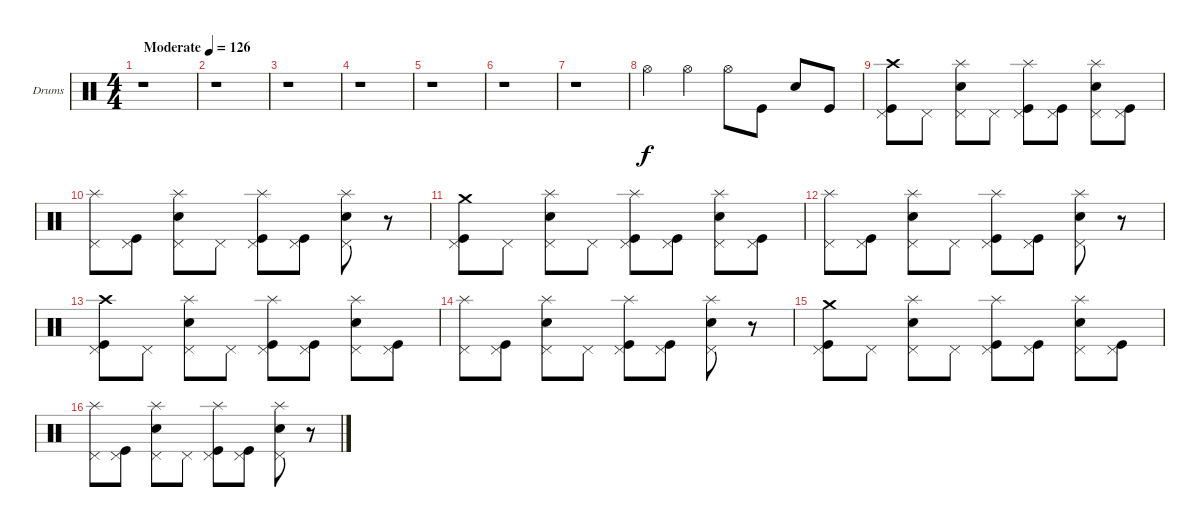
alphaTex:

\bracketExtendMode groupsimilarinstruments
\firstSystemTrackNameOrientation horizontal
\otherSystemsTrackNameOrientation horizontal
\track ("Drumkit" "Drums") {instrument percussion}
\staff {score}
\articulation defaults
\ts (4 4)
\beaming (8 2 2 2 2)
\tempo (126 "Moderate")
\clef neutral
\ks c
r.1{dy f} |
r.1 |
r.1 |
r.1 |
r.1 |
r.1 |
r.1 |
"Hi-Hat (open)".4 "Hi-Hat (open)".4 "Hi-Hat (open)".8 "Kick (hit)".8 "Snare (hit) 2".8 "Kick (hit)".8 |
("Pedal Hi-Hat (hit)" "Kick (hit)" "Crash high (hit)").8 "Pedal Hi-Hat (hit)".8 ("Pedal Hi-Hat (hit)" "Splash (hit)" "Snare (hit) 2").8 "Pedal Hi-Hat (hit)".8 ("Pedal Hi-Hat (hit)" "Splash (hit)" "Kick (hit)").8 ("Pedal Hi-Hat (hit)" "Kick (hit)").8 ("Pedal Hi-Hat (hit)" "Splash (hit)" "Snare (hit) 2").8 ("Pedal Hi-Hat (hit)" "Kick (hit)").8 |
("Pedal Hi-Hat (hit)" "Splash (hit)").8 ("Pedal Hi-Hat (hit)" "Kick (hit)").8 ("Pedal Hi-Hat (hit)" "Splash (hit)" "Snare (hit) 2").8 "Pedal Hi-Hat (hit)".8 ("Pedal Hi-Hat (hit)" "Splash (hit)" "Kick (hit)").8 ("Pedal Hi-Hat (hit)" "Kick (hit)").8 ("Pedal Hi-Hat (hit)" "Splash (hit)" "Snare (hit) 2").8 r.8 |
("Pedal Hi-Hat (hit)" "Kick (hit)" "Crash medium (hit)").8 "Pedal Hi-Hat (hit)".8 ("Pedal Hi-Hat (hit)" "Snare (hit) 2" "Splash (hit)").8 "Pedal Hi-Hat (hit)".8 ("Pedal Hi-Hat (hit)" "Kick (hit)" "Splash (hit)").8 ("Kick (hit)" "Pedal Hi-Hat (hit)").8 ("Splash (hit)" "Snare (hit) 2" "Pedal Hi-Hat (hit)").8 ("Pedal Hi-Hat (hit)" "Kick (hit)").8 |
("Splash (hit)" "Pedal Hi-Hat (hit)").8 ("Kick (hit)" "Pedal Hi-Hat (hit)").8 ("Splash (hit)" "Snare (hit) 2" "Pedal Hi-Hat (hit)").8 "Pedal Hi-Hat (hit)".8 ("Splash (hit)" "Kick (hit)" "Pedal Hi-Hat (hit)").8 ("Pedal Hi-Hat (hit)" "Kick (hit)").8 ("Pedal Hi-Hat (hit)" "Snare (hit) 2" "Splash (hit)").8 r.8 |
("Pedal Hi-Hat (hit)" "Kick (hit)" "Crash high (hit)").8 "Pedal Hi-Hat (hit)".8 ("Pedal Hi-Hat (hit)" "Splash (hit)" "Snare (hit) 2").8 "Pedal Hi-Hat (hit)".8 ("Pedal Hi-Hat (hit)" "Splash (hit)" "Kick (hit)").8 ("Pedal Hi-Hat (hit)" "Kick (hit)").8 ("Pedal Hi-Hat (hit)" "Splash (hit)" "Snare (hit) 2").8 ("Pedal Hi-Hat (hit)" "Kick (hit)").8 |
("Pedal Hi-Hat (hit)" "Splash (hit)").8 ("Pedal Hi-Hat (hit)" "Kick (hit)").8 ("Pedal Hi-Hat (hit)" "Splash (hit)" "Snare (hit) 2").8 "Pedal Hi-Hat (hit)".8 ("Pedal Hi-Hat (hit)" "Splash (hit)" "Kick (hit)").8 ("Pedal Hi-Hat (hit)" "Kick (hit)").8 ("Pedal Hi-Hat (hit)" "Splash (hit)" "Snare (hit) 2").8 r.8 |
("Pedal Hi-Hat (hit)" "Kick (hit)" "Crash medium (hit)").8 "Pedal Hi-Hat (hit)".8 ("Pedal Hi-Hat (hit)" "Snare (hit) 2" "Splash (hit)").8 "Pedal Hi-Hat (hit)".8 ("Pedal Hi-Hat (hit)" "Kick (hit)" "Splash (hit)").8 ("Kick (hit)" "Pedal Hi-Hat (hit)").8 ("Splash (hit)" "Snare (hit) 2" "Pedal Hi-Hat (hit)").8 ("Pedal Hi-Hat (hit)" "Kick (hit)").8 |
("Splash (hit)" "Pedal Hi-Hat (hit)").8 ("Kick (hit)" "Pedal Hi-Hat (hit)").8 ("Splash (hit)" "Snare (hit) 2" "Pedal Hi-Hat (hit)").8 "Pedal Hi-Hat (hit)".8 ("Splash (hit)" "Kick (hit)" "Pedal Hi-Hat (hit)").8 ("Pedal Hi-Hat (hit)" "Kick (hit)").8 ("Pedal Hi-Hat (hit)" "Snare (hit) 2" "Splash (hit)").8 r.8
